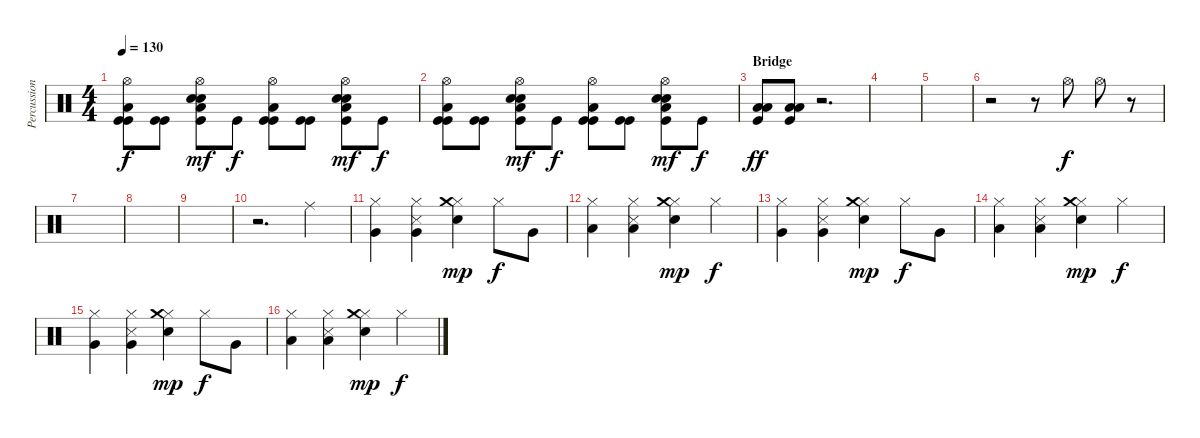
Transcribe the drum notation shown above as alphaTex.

\track ("Percussion" "Percussion") {instrument percussion}
\staff {score}
\articulation defaults
\ts (4 4)
\tempo 130
\clef neutral
\ks c
("Hi-Hat (open)" "Kick (hit)" "Kick (hit)" "Low Floor Tom (hit)").8{dy f} ("Kick (hit)" "Kick (hit)").8 ("Hi-Hat (open)" "Snare (hit) 2" "Snare (hit) 2" "Kick (hit)" "Low Floor Tom (hit)").8{dy mf} "Kick (hit)".8{dy f} ("Hi-Hat (open)" "Kick (hit)" "Kick (hit)" "Low Floor Tom (hit)").8 ("Kick (hit)" "Kick (hit)").8 ("Hi-Hat (open)" "Snare (hit) 2" "Snare (hit) 2" "Kick (hit)" "Low Floor Tom (hit)").8{dy mf} "Kick (hit)".8{dy f} |
("Hi-Hat (open)" "Kick (hit)" "Kick (hit)" "Low Floor Tom (hit)").8 ("Kick (hit)" "Kick (hit)").8 ("Hi-Hat (open)" "Snare (hit) 2" "Snare (hit) 2" "Kick (hit)" "Low Floor Tom (hit)").8{dy mf} "Kick (hit)".8{dy f} ("Hi-Hat (open)" "Kick (hit)" "Kick (hit)" "Low Floor Tom (hit)").8 ("Kick (hit)" "Kick (hit)").8 ("Hi-Hat (open)" "Snare (hit) 2" "Snare (hit) 2" "Kick (hit)" "Low Floor Tom (hit)").8{dy mf} "Kick (hit)".8{dy f} |
\section ("" "Bridge")
("Low Tom (hit)" "Low Floor Tom (hit)" "Kick (hit)").8{dy ff} ("Low Tom (hit)" "Low Floor Tom (hit)" "Kick (hit)").8 r.2{d} |
|
|
r.2 r.8 "Hi-Hat (open)".8{dy f} "Hi-Hat (open)".8 r.8 |
|
|
|
r.2{d} "Ride (middle)".4 |
("Hi-Hat (closed)" "Very Low Tom (hit)").4 ("Hi-Hat (closed)" "Very Low Tom (hit)" "Snare (side stick) 3").4 ("Hi-Hat (closed)" "Crash medium (hit)" "Snare (hit) 2").4{dy mp} "Hi-Hat (closed)".8{dy f} "Very Low Tom (hit)".8 |
("Hi-Hat (closed)" "Low Tom (hit)").4 ("Hi-Hat (closed)" "Low Tom (hit)" "Snare (side stick) 3").4 ("Hi-Hat (closed)" "Crash medium (hit)" "Snare (hit) 2").4{dy mp} "Hi-Hat (closed)".4{dy f} |
("Hi-Hat (closed)" "Very Low Tom (hit)").4 ("Hi-Hat (closed)" "Very Low Tom (hit)" "Snare (side stick) 3").4 ("Hi-Hat (closed)" "Crash medium (hit)" "Snare (hit) 2").4{dy mp} "Hi-Hat (closed)".8{dy f} "Very Low Tom (hit)".8 |
("Hi-Hat (closed)" "Low Tom (hit)").4 ("Hi-Hat (closed)" "Low Tom (hit)" "Snare (side stick) 3").4 ("Hi-Hat (closed)" "Crash medium (hit)" "Snare (hit) 2").4{dy mp} "Hi-Hat (closed)".4{dy f} |
("Hi-Hat (closed)" "Very Low Tom (hit)").4 ("Hi-Hat (closed)" "Very Low Tom (hit)" "Snare (side stick) 3").4 ("Hi-Hat (closed)" "Crash medium (hit)" "Snare (hit) 2").4{dy mp} "Hi-Hat (closed)".8{dy f} "Very Low Tom (hit)".8 |
("Hi-Hat (closed)" "Low Tom (hit)").4 ("Hi-Hat (closed)" "Low Tom (hit)" "Snare (side stick) 3").4 ("Hi-Hat (closed)" "Crash medium (hit)" "Snare (hit) 2").4{dy mp} "Hi-Hat (closed)".4{dy f}
